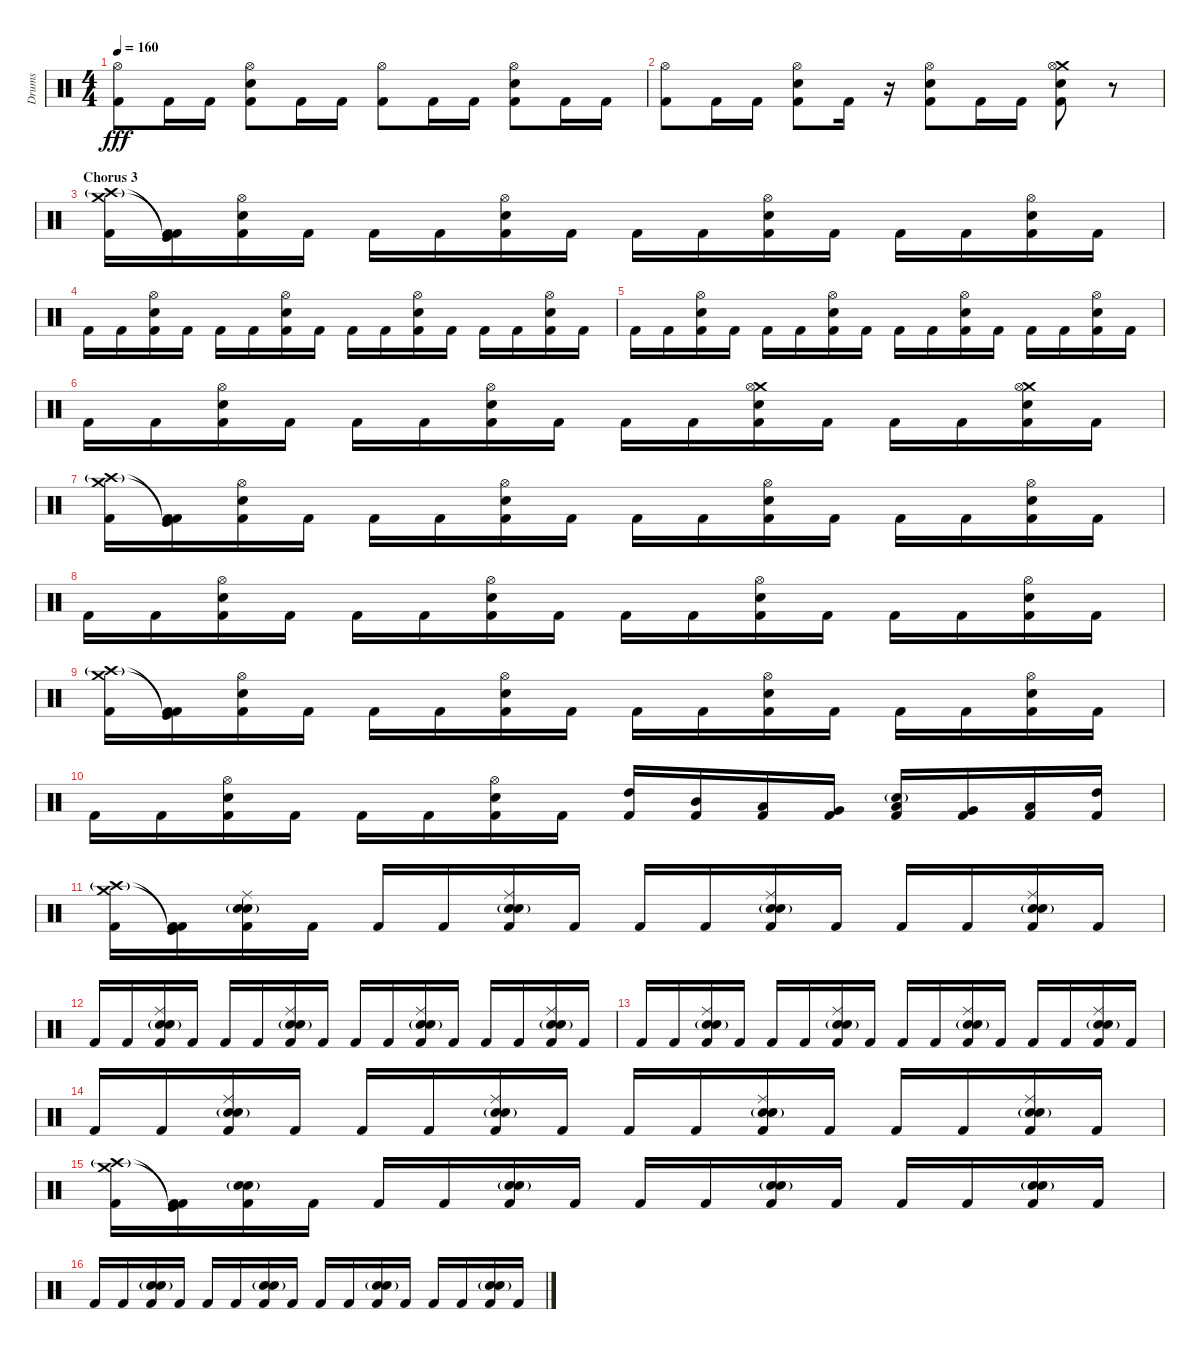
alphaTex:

\track ("Drums" "Drums") {instrument percussion}
\staff {score}
\articulation defaults
\ts (4 4)
\tempo 160
\clef neutral
\ks c
("Hi-Hat (open)" "Kick (hit) 2").8{dy fff} "Kick (hit) 2".16 "Kick (hit) 2".16 ("Hi-Hat (open)" "Snare (hit) 2" "Kick (hit) 2").8 "Kick (hit) 2".16 "Kick (hit) 2".16 ("Hi-Hat (open)" "Kick (hit) 2").8 "Kick (hit) 2".16 "Kick (hit) 2".16 ("Hi-Hat (open)" "Snare (hit) 2" "Kick (hit) 2").8 "Kick (hit) 2".16 "Kick (hit) 2".16 |
("Hi-Hat (open)" "Kick (hit) 2").8 "Kick (hit) 2".16 "Kick (hit) 2".16 ("Hi-Hat (open)" "Snare (hit) 2" "Kick (hit) 2").8 "Kick (hit) 2".16 r.16 ("Hi-Hat (open)" "Snare (hit) 2" "Kick (hit) 2").8 "Kick (hit) 2".16 "Kick (hit) 2".16 ("Crash medium (hit)" "Hi-Hat (open)" "Snare (hit) 2" "Kick (hit) 2").8 r.8 |
\section ("" "Chorus 3")
("Crash medium (hit)" "Crash high (hit)"{g} "Kick (hit) 2").16 ("Kick (hit) 2"{t} "Kick (hit)"{t} "Kick (hit) 2").16 ("Hi-Hat (open)" "Snare (hit) 2" "Kick (hit) 2").16 "Kick (hit) 2".16 "Kick (hit) 2".16 "Kick (hit) 2".16 ("Hi-Hat (open)" "Snare (hit) 2" "Kick (hit) 2").16 "Kick (hit) 2".16 "Kick (hit) 2".16 "Kick (hit) 2".16 ("Hi-Hat (open)" "Snare (hit) 2" "Kick (hit) 2").16 "Kick (hit) 2".16 "Kick (hit) 2".16 "Kick (hit) 2".16 ("Hi-Hat (open)" "Snare (hit) 2" "Kick (hit) 2").16 "Kick (hit) 2".16 |
"Kick (hit) 2".16 "Kick (hit) 2".16 ("Hi-Hat (open)" "Snare (hit) 2" "Kick (hit) 2").16 "Kick (hit) 2".16 "Kick (hit) 2".16 "Kick (hit) 2".16 ("Hi-Hat (open)" "Snare (hit) 2" "Kick (hit) 2").16 "Kick (hit) 2".16 "Kick (hit) 2".16 "Kick (hit) 2".16 ("Hi-Hat (open)" "Snare (hit) 2" "Kick (hit) 2").16 "Kick (hit) 2".16 "Kick (hit) 2".16 "Kick (hit) 2".16 ("Hi-Hat (open)" "Snare (hit) 2" "Kick (hit) 2").16 "Kick (hit) 2".16 |
"Kick (hit) 2".16 "Kick (hit) 2".16 ("Hi-Hat (open)" "Snare (hit) 2" "Kick (hit) 2").16 "Kick (hit) 2".16 "Kick (hit) 2".16 "Kick (hit) 2".16 ("Hi-Hat (open)" "Snare (hit) 2" "Kick (hit) 2").16 "Kick (hit) 2".16 "Kick (hit) 2".16 "Kick (hit) 2".16 ("Hi-Hat (open)" "Snare (hit) 2" "Kick (hit) 2").16 "Kick (hit) 2".16 "Kick (hit) 2".16 "Kick (hit) 2".16 ("Hi-Hat (open)" "Snare (hit) 2" "Kick (hit) 2").16 "Kick (hit) 2".16 |
"Kick (hit) 2".16 "Kick (hit) 2".16 ("Hi-Hat (open)" "Snare (hit) 2" "Kick (hit) 2").16 "Kick (hit) 2".16 "Kick (hit) 2".16 "Kick (hit) 2".16 ("Hi-Hat (open)" "Snare (hit) 2" "Kick (hit) 2").16 "Kick (hit) 2".16 "Kick (hit) 2".16 "Kick (hit) 2".16 ("Crash medium (hit)" "Hi-Hat (open)" "Snare (hit) 2" "Kick (hit) 2").16 "Kick (hit) 2".16 "Kick (hit) 2".16 "Kick (hit) 2".16 ("Crash medium (hit)" "Hi-Hat (open)" "Snare (hit) 2" "Kick (hit) 2").16 "Kick (hit) 2".16 |
("Crash medium (hit)" "Crash high (hit)"{g} "Kick (hit) 2").16 ("Kick (hit) 2"{t} "Kick (hit)"{t} "Kick (hit) 2").16 ("Hi-Hat (open)" "Snare (hit) 2" "Kick (hit) 2").16 "Kick (hit) 2".16 "Kick (hit) 2".16 "Kick (hit) 2".16 ("Hi-Hat (open)" "Snare (hit) 2" "Kick (hit) 2").16 "Kick (hit) 2".16 "Kick (hit) 2".16 "Kick (hit) 2".16 ("Hi-Hat (open)" "Snare (hit) 2" "Kick (hit) 2").16 "Kick (hit) 2".16 "Kick (hit) 2".16 "Kick (hit) 2".16 ("Hi-Hat (open)" "Snare (hit) 2" "Kick (hit) 2").16 "Kick (hit) 2".16 |
"Kick (hit) 2".16 "Kick (hit) 2".16 ("Hi-Hat (open)" "Snare (hit) 2" "Kick (hit) 2").16 "Kick (hit) 2".16 "Kick (hit) 2".16 "Kick (hit) 2".16 ("Hi-Hat (open)" "Snare (hit) 2" "Kick (hit) 2").16 "Kick (hit) 2".16 "Kick (hit) 2".16 "Kick (hit) 2".16 ("Hi-Hat (open)" "Snare (hit) 2" "Kick (hit) 2").16 "Kick (hit) 2".16 "Kick (hit) 2".16 "Kick (hit) 2".16 ("Hi-Hat (open)" "Snare (hit) 2" "Kick (hit) 2").16 "Kick (hit) 2".16 |
("Crash medium (hit)" "Crash high (hit)"{g} "Kick (hit) 2").16 ("Kick (hit) 2"{t} "Kick (hit)"{t} "Kick (hit) 2").16 ("Hi-Hat (open)" "Snare (hit) 2" "Kick (hit) 2").16 "Kick (hit) 2".16 "Kick (hit) 2".16 "Kick (hit) 2".16 ("Hi-Hat (open)" "Snare (hit) 2" "Kick (hit) 2").16 "Kick (hit) 2".16 "Kick (hit) 2".16 "Kick (hit) 2".16 ("Hi-Hat (open)" "Snare (hit) 2" "Kick (hit) 2").16 "Kick (hit) 2".16 "Kick (hit) 2".16 "Kick (hit) 2".16 ("Hi-Hat (open)" "Snare (hit) 2" "Kick (hit) 2").16 "Kick (hit) 2".16 |
"Kick (hit) 2".16 "Kick (hit) 2".16 ("Hi-Hat (open)" "Snare (hit) 2" "Kick (hit) 2").16 "Kick (hit) 2".16 "Kick (hit) 2".16 "Kick (hit) 2".16 ("Hi-Hat (open)" "Snare (hit) 2" "Kick (hit) 2").16 "Kick (hit) 2".16 ("High Tom (hit)" "Kick (hit) 2").16 ("Mid Tom (hit)" "Kick (hit) 2").16 ("Low Tom (hit)" "Kick (hit) 2").16 ("Very Low Tom (hit)" "Kick (hit) 2").16 ("Snare (hit)"{g} "Low Tom (hit)" "Kick (hit) 2").16 ("Very Low Tom (hit)" "Kick (hit) 2").16 ("Low Floor Tom (hit)" "Kick (hit) 2").16 ("High Tom (hit)" "Kick (hit) 2").16 |
("Crash medium (hit)" "Crash high (hit)"{g} "Kick (hit) 2").16 ("Kick (hit) 2"{t} "Kick (hit)"{t} "Kick (hit) 2").16 ("Ride (middle)" "Snare (hit) 2"{g} "Electric Snare (hit)" "Kick (hit) 2").16 "Kick (hit) 2".16 "Kick (hit) 2".16 "Kick (hit) 2".16 ("Ride (middle)" "Snare (hit) 2"{g} "Electric Snare (hit)" "Kick (hit) 2").16 "Kick (hit) 2".16 "Kick (hit) 2".16 "Kick (hit) 2".16 ("Ride (middle)" "Snare (hit) 2"{g} "Electric Snare (hit)" "Kick (hit) 2").16 "Kick (hit) 2".16 "Kick (hit) 2".16 "Kick (hit) 2".16 ("Ride (middle)" "Snare (hit) 2"{g} "Electric Snare (hit)" "Kick (hit) 2").16 "Kick (hit) 2".16 |
"Kick (hit) 2".16 "Kick (hit) 2".16 ("Ride (middle)" "Snare (hit) 2"{g} "Electric Snare (hit)" "Kick (hit) 2").16 "Kick (hit) 2".16 "Kick (hit) 2".16 "Kick (hit) 2".16 ("Ride (middle)" "Snare (hit) 2"{g} "Electric Snare (hit)" "Kick (hit) 2").16 "Kick (hit) 2".16 "Kick (hit) 2".16 "Kick (hit) 2".16 ("Ride (middle)" "Snare (hit) 2"{g} "Electric Snare (hit)" "Kick (hit) 2").16 "Kick (hit) 2".16 "Kick (hit) 2".16 "Kick (hit) 2".16 ("Ride (middle)" "Snare (hit) 2"{g} "Electric Snare (hit)" "Kick (hit) 2").16 "Kick (hit) 2".16 |
"Kick (hit) 2".16 "Kick (hit) 2".16 ("Ride (middle)" "Snare (hit) 2"{g} "Electric Snare (hit)" "Kick (hit) 2").16 "Kick (hit) 2".16 "Kick (hit) 2".16 "Kick (hit) 2".16 ("Ride (middle)" "Snare (hit) 2"{g} "Electric Snare (hit)" "Kick (hit) 2").16 "Kick (hit) 2".16 "Kick (hit) 2".16 "Kick (hit) 2".16 ("Ride (middle)" "Snare (hit) 2"{g} "Electric Snare (hit)" "Kick (hit) 2").16 "Kick (hit) 2".16 "Kick (hit) 2".16 "Kick (hit) 2".16 ("Ride (middle)" "Snare (hit) 2"{g} "Electric Snare (hit)" "Kick (hit) 2").16 "Kick (hit) 2".16 |
"Kick (hit) 2".16 "Kick (hit) 2".16 ("Ride (middle)" "Snare (hit) 2"{g} "Electric Snare (hit)" "Kick (hit) 2").16 "Kick (hit) 2".16 "Kick (hit) 2".16 "Kick (hit) 2".16 ("Ride (middle)" "Snare (hit) 2"{g} "Electric Snare (hit)" "Kick (hit) 2").16 "Kick (hit) 2".16 "Kick (hit) 2".16 "Kick (hit) 2".16 ("Ride (middle)" "Snare (hit) 2"{g} "Electric Snare (hit)" "Kick (hit) 2").16 "Kick (hit) 2".16 "Kick (hit) 2".16 "Kick (hit) 2".16 ("Ride (middle)" "Snare (hit) 2"{g} "Electric Snare (hit)" "Kick (hit) 2").16 "Kick (hit) 2".16 |
("Crash medium (hit)" "Crash high (hit)"{g} "Kick (hit) 2").16 ("Kick (hit) 2"{t} "Kick (hit)"{t} "Kick (hit) 2").16 ("Snare (hit) 2"{g} "Electric Snare (hit)" "Kick (hit) 2").16 "Kick (hit) 2".16 "Kick (hit) 2".16 "Kick (hit) 2".16 ("Snare (hit) 2"{g} "Electric Snare (hit)" "Kick (hit) 2").16 "Kick (hit) 2".16 "Kick (hit) 2".16 "Kick (hit) 2".16 ("Snare (hit) 2"{g} "Electric Snare (hit)" "Kick (hit) 2").16 "Kick (hit) 2".16 "Kick (hit) 2".16 "Kick (hit) 2".16 ("Snare (hit) 2"{g} "Electric Snare (hit)" "Kick (hit) 2").16 "Kick (hit) 2".16 |
"Kick (hit) 2".16 "Kick (hit) 2".16 ("Snare (hit) 2"{g} "Electric Snare (hit)" "Kick (hit) 2").16 "Kick (hit) 2".16 "Kick (hit) 2".16 "Kick (hit) 2".16 ("Snare (hit) 2"{g} "Electric Snare (hit)" "Kick (hit) 2").16 "Kick (hit) 2".16 "Kick (hit) 2".16 "Kick (hit) 2".16 ("Snare (hit) 2"{g} "Electric Snare (hit)" "Kick (hit) 2").16 "Kick (hit) 2".16 "Kick (hit) 2".16 "Kick (hit) 2".16 ("Snare (hit) 2"{g} "Electric Snare (hit)" "Kick (hit) 2").16 "Kick (hit) 2".16
